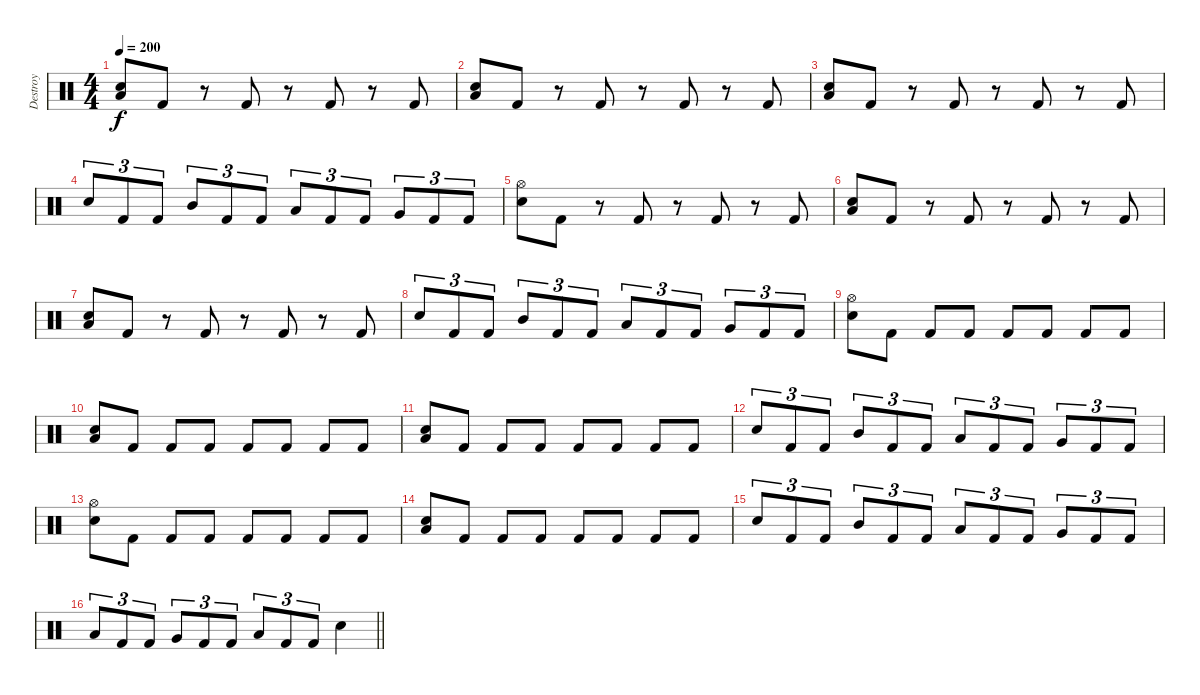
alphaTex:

\track ("Destroy" "Destroy") {instrument percussion}
\staff {score}
\articulation defaults
\ts (4 4)
\tempo 200
\clef neutral
\ks c
("Low Tom (hit)" "Snare (hit) 2").8{dy f} "Kick (hit) 2".8 r.8 "Kick (hit) 2".8 r.8 "Kick (hit) 2".8 r.8 "Kick (hit) 2".8 |
("Low Tom (hit)" "Snare (hit) 2").8 "Kick (hit) 2".8 r.8 "Kick (hit) 2".8 r.8 "Kick (hit) 2".8 r.8 "Kick (hit) 2".8 |
("Low Tom (hit)" "Snare (hit) 2").8 "Kick (hit) 2".8 r.8 "Kick (hit) 2".8 r.8 "Kick (hit) 2".8 r.8 "Kick (hit) 2".8 |
"Snare (hit) 2".8{tu (3 2)} "Kick (hit) 2".8{tu (3 2)} "Kick (hit) 2".8{tu (3 2)} "Mid Tom (hit)".8{tu (3 2)} "Kick (hit) 2".8{tu (3 2)} "Kick (hit) 2".8{tu (3 2)} "Low Tom (hit)".8{tu (3 2)} "Kick (hit) 2".8{tu (3 2)} "Kick (hit) 2".8{tu (3 2)} "Very Low Tom (hit)".8{tu (3 2)} "Kick (hit) 2".8{tu (3 2)} "Kick (hit) 2".8{tu (3 2)} |
("Hi-Hat (open)" "Snare (hit) 2").8 "Kick (hit) 2".8 r.8 "Kick (hit) 2".8 r.8 "Kick (hit) 2".8 r.8 "Kick (hit) 2".8 |
("Low Tom (hit)" "Snare (hit) 2").8 "Kick (hit) 2".8 r.8 "Kick (hit) 2".8 r.8 "Kick (hit) 2".8 r.8 "Kick (hit) 2".8 |
("Low Tom (hit)" "Snare (hit) 2").8 "Kick (hit) 2".8 r.8 "Kick (hit) 2".8 r.8 "Kick (hit) 2".8 r.8 "Kick (hit) 2".8 |
"Snare (hit) 2".8{tu (3 2)} "Kick (hit) 2".8{tu (3 2)} "Kick (hit) 2".8{tu (3 2)} "Mid Tom (hit)".8{tu (3 2)} "Kick (hit) 2".8{tu (3 2)} "Kick (hit) 2".8{tu (3 2)} "Low Tom (hit)".8{tu (3 2)} "Kick (hit) 2".8{tu (3 2)} "Kick (hit) 2".8{tu (3 2)} "Very Low Tom (hit)".8{tu (3 2)} "Kick (hit) 2".8{tu (3 2)} "Kick (hit) 2".8{tu (3 2)} |
("Hi-Hat (open)" "Snare (hit) 2").8 "Kick (hit) 2".8 "Kick (hit) 2".8 "Kick (hit) 2".8 "Kick (hit) 2".8 "Kick (hit) 2".8 "Kick (hit) 2".8 "Kick (hit) 2".8 |
("Low Tom (hit)" "Snare (hit) 2").8 "Kick (hit) 2".8 "Kick (hit) 2".8 "Kick (hit) 2".8 "Kick (hit) 2".8 "Kick (hit) 2".8 "Kick (hit) 2".8 "Kick (hit) 2".8 |
("Low Tom (hit)" "Snare (hit) 2").8 "Kick (hit) 2".8 "Kick (hit) 2".8 "Kick (hit) 2".8 "Kick (hit) 2".8 "Kick (hit) 2".8 "Kick (hit) 2".8 "Kick (hit) 2".8 |
"Snare (hit) 2".8{tu (3 2)} "Kick (hit) 2".8{tu (3 2)} "Kick (hit) 2".8{tu (3 2)} "Mid Tom (hit)".8{tu (3 2)} "Kick (hit) 2".8{tu (3 2)} "Kick (hit) 2".8{tu (3 2)} "Low Tom (hit)".8{tu (3 2)} "Kick (hit) 2".8{tu (3 2)} "Kick (hit) 2".8{tu (3 2)} "Very Low Tom (hit)".8{tu (3 2)} "Kick (hit) 2".8{tu (3 2)} "Kick (hit) 2".8{tu (3 2)} |
("Hi-Hat (open)" "Snare (hit) 2").8 "Kick (hit) 2".8 "Kick (hit) 2".8 "Kick (hit) 2".8 "Kick (hit) 2".8 "Kick (hit) 2".8 "Kick (hit) 2".8 "Kick (hit) 2".8 |
("Low Tom (hit)" "Snare (hit) 2").8 "Kick (hit) 2".8 "Kick (hit) 2".8 "Kick (hit) 2".8 "Kick (hit) 2".8 "Kick (hit) 2".8 "Kick (hit) 2".8 "Kick (hit) 2".8 |
"Snare (hit) 2".8{tu (3 2)} "Kick (hit) 2".8{tu (3 2)} "Kick (hit) 2".8{tu (3 2)} "Mid Tom (hit)".8{tu (3 2)} "Kick (hit) 2".8{tu (3 2)} "Kick (hit) 2".8{tu (3 2)} "Low Tom (hit)".8{tu (3 2)} "Kick (hit) 2".8{tu (3 2)} "Kick (hit) 2".8{tu (3 2)} "Very Low Tom (hit)".8{tu (3 2)} "Kick (hit) 2".8{tu (3 2)} "Kick (hit) 2".8{tu (3 2)} |
\barLineRight lightlight "Low Tom (hit)".8{tu (3 2)} "Kick (hit) 2".8{tu (3 2)} "Kick (hit) 2".8{tu (3 2)} "Very Low Tom (hit)".8{tu (3 2)} "Kick (hit) 2".8{tu (3 2)} "Kick (hit) 2".8{tu (3 2)} "Low Floor Tom (hit)".8{tu (3 2)} "Kick (hit) 2".8{tu (3 2)} "Kick (hit) 2".8{tu (3 2)} "Snare (hit) 2".4
